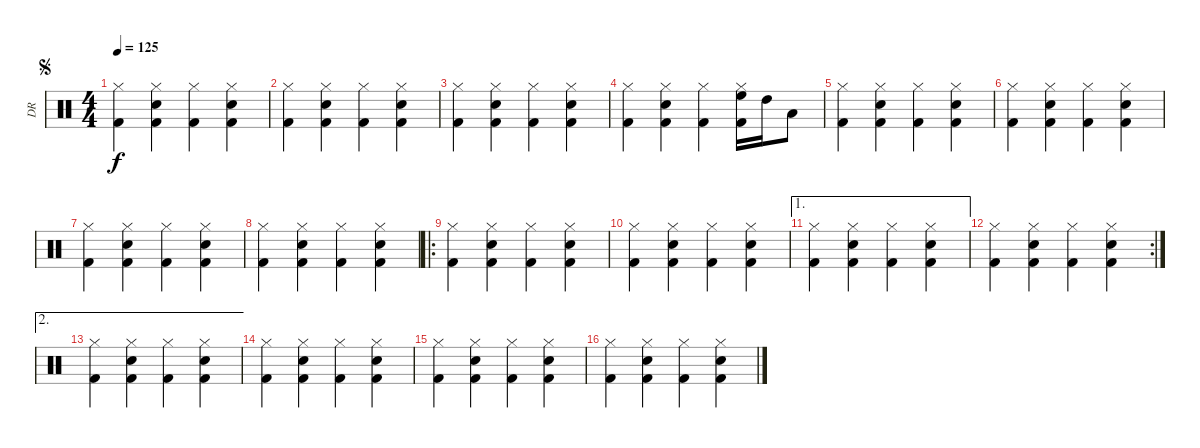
\track ("DR" "DR") {instrument percussion}
\staff {score}
\articulation defaults
\ts (4 4)
\jump segno
\tempo 125
\clef neutral
\ks c
("Hi-Hat (closed)" "Kick (hit) 2").4{dy f} ("Kick (hit) 2" "Hand Clap (hit)" "Hi-Hat (closed)").4 ("Kick (hit) 2" "Hi-Hat (closed)").4 ("Kick (hit) 2" "Hi-Hat (closed)" "Hand Clap (hit)").4 |
("Hi-Hat (closed)" "Kick (hit) 2").4 ("Kick (hit) 2" "Hand Clap (hit)" "Hi-Hat (closed)").4 ("Kick (hit) 2" "Hi-Hat (closed)").4 ("Kick (hit) 2" "Hi-Hat (closed)" "Hand Clap (hit)").4 |
("Hi-Hat (closed)" "Kick (hit) 2").4 ("Kick (hit) 2" "Hand Clap (hit)" "Hi-Hat (closed)").4 ("Kick (hit) 2" "Hi-Hat (closed)").4 ("Kick (hit) 2" "Hi-Hat (closed)" "Hand Clap (hit)").4 |
("Hi-Hat (closed)" "Kick (hit) 2").4 ("Kick (hit) 2" "Hand Clap (hit)" "Hi-Hat (closed)").4 ("Kick (hit) 2" "Hi-Hat (closed)").4 ("Kick (hit) 2" "High Floor Tom (hit)" "Hi-Hat (closed)").16 "High Tom (hit)".16 "Low Tom (hit)".8 |
("Hi-Hat (closed)" "Kick (hit) 2").4 ("Kick (hit) 2" "Hand Clap (hit)" "Hi-Hat (closed)").4 ("Kick (hit) 2" "Hi-Hat (closed)").4 ("Kick (hit) 2" "Hi-Hat (closed)" "Hand Clap (hit)").4 |
("Hi-Hat (closed)" "Kick (hit) 2").4 ("Kick (hit) 2" "Hand Clap (hit)" "Hi-Hat (closed)").4 ("Kick (hit) 2" "Hi-Hat (closed)").4 ("Kick (hit) 2" "Hi-Hat (closed)" "Hand Clap (hit)").4 |
("Hi-Hat (closed)" "Kick (hit) 2").4 ("Kick (hit) 2" "Hand Clap (hit)" "Hi-Hat (closed)").4 ("Kick (hit) 2" "Hi-Hat (closed)").4 ("Kick (hit) 2" "Hi-Hat (closed)" "Hand Clap (hit)").4 |
("Hi-Hat (closed)" "Kick (hit) 2").4 ("Kick (hit) 2" "Hand Clap (hit)" "Hi-Hat (closed)").4 ("Kick (hit) 2" "Hi-Hat (closed)").4 ("Kick (hit) 2" "Hi-Hat (closed)" "Hand Clap (hit)").4 |
\ro
("Hi-Hat (closed)" "Kick (hit) 2").4 ("Kick (hit) 2" "Hand Clap (hit)" "Hi-Hat (closed)").4 ("Kick (hit) 2" "Hi-Hat (closed)").4 ("Kick (hit) 2" "Hi-Hat (closed)" "Hand Clap (hit)").4 |
("Hi-Hat (closed)" "Kick (hit) 2").4 ("Kick (hit) 2" "Hand Clap (hit)" "Hi-Hat (closed)").4 ("Kick (hit) 2" "Hi-Hat (closed)").4 ("Kick (hit) 2" "Hi-Hat (closed)" "Hand Clap (hit)").4 |
\ae 1
("Hi-Hat (closed)" "Kick (hit) 2").4 ("Kick (hit) 2" "Hand Clap (hit)" "Hi-Hat (closed)").4 ("Kick (hit) 2" "Hi-Hat (closed)").4 ("Kick (hit) 2" "Hi-Hat (closed)" "Hand Clap (hit)").4 |
\rc 2
("Hi-Hat (closed)" "Kick (hit) 2").4 ("Kick (hit) 2" "Hand Clap (hit)" "Hi-Hat (closed)").4 ("Kick (hit) 2" "Hi-Hat (closed)").4 ("Kick (hit) 2" "Hi-Hat (closed)" "Hand Clap (hit)").4 |
\ae 2
("Hi-Hat (closed)" "Kick (hit) 2").4 ("Kick (hit) 2" "Hand Clap (hit)" "Hi-Hat (closed)").4 ("Kick (hit) 2" "Hi-Hat (closed)").4 ("Kick (hit) 2" "Hi-Hat (closed)" "Hand Clap (hit)").4 |
("Hi-Hat (closed)" "Kick (hit) 2").4 ("Kick (hit) 2" "Hand Clap (hit)" "Hi-Hat (closed)").4 ("Kick (hit) 2" "Hi-Hat (closed)").4 ("Kick (hit) 2" "Hi-Hat (closed)" "Hand Clap (hit)").4 |
("Hi-Hat (closed)" "Kick (hit) 2").4 ("Kick (hit) 2" "Hand Clap (hit)" "Hi-Hat (closed)").4 ("Kick (hit) 2" "Hi-Hat (closed)").4 ("Kick (hit) 2" "Hi-Hat (closed)" "Hand Clap (hit)").4 |
("Hi-Hat (closed)" "Kick (hit) 2").4 ("Kick (hit) 2" "Hand Clap (hit)" "Hi-Hat (closed)").4 ("Kick (hit) 2" "Hi-Hat (closed)").4 ("Kick (hit) 2" "Hi-Hat (closed)" "Hand Clap (hit)").4
